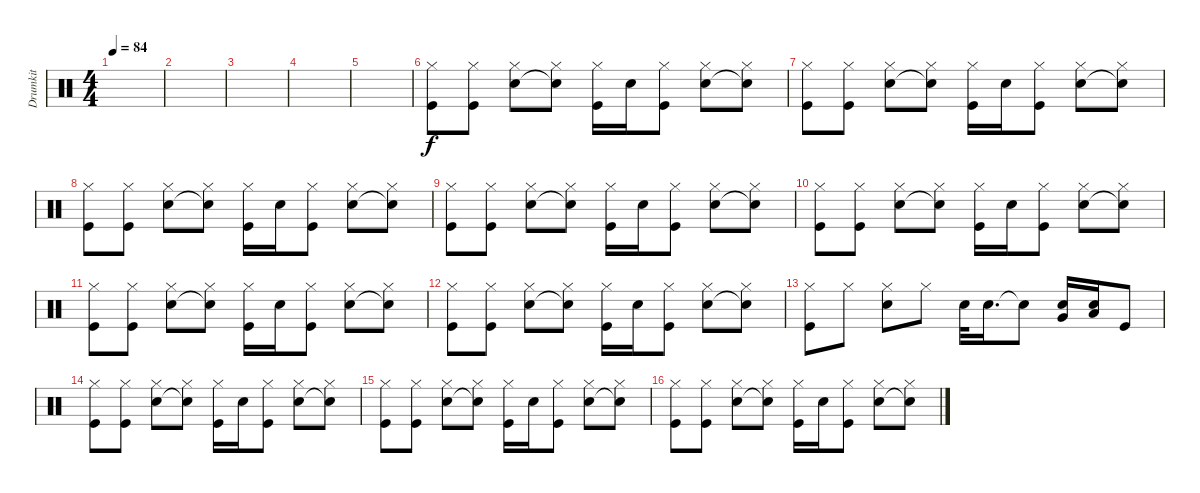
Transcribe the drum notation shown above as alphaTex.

\track ("Drumkit" "Drumkit") {instrument percussion}
\staff {score}
\articulation defaults
\ts (4 4)
\tempo 84
\clef neutral
\ks c
|
|
|
|
|
("Kick (hit)" "Hi-Hat (closed)").8 ("Kick (hit)" "Hi-Hat (closed)").8 ("Snare (hit) 2" "Hi-Hat (closed)").8 ("Snare (hit) 2"{t} "Hi-Hat (closed)").8 ("Kick (hit)" "Hi-Hat (closed)").16 "Snare (hit) 2".16 ("Kick (hit)" "Hi-Hat (closed)").8 ("Snare (hit) 2" "Hi-Hat (closed)").8 ("Snare (hit) 2"{t} "Hi-Hat (closed)").8 |
("Kick (hit)" "Hi-Hat (closed)").8 ("Kick (hit)" "Hi-Hat (closed)").8 ("Snare (hit) 2" "Hi-Hat (closed)").8 ("Snare (hit) 2"{t} "Hi-Hat (closed)").8 ("Kick (hit)" "Hi-Hat (closed)").16 "Snare (hit) 2".16 ("Kick (hit)" "Hi-Hat (closed)").8 ("Snare (hit) 2" "Hi-Hat (closed)").8 ("Snare (hit) 2"{t} "Hi-Hat (closed)").8 |
("Kick (hit)" "Hi-Hat (closed)").8 ("Kick (hit)" "Hi-Hat (closed)").8 ("Snare (hit) 2" "Hi-Hat (closed)").8 ("Snare (hit) 2"{t} "Hi-Hat (closed)").8 ("Kick (hit)" "Hi-Hat (closed)").16 "Snare (hit) 2".16 ("Kick (hit)" "Hi-Hat (closed)").8 ("Snare (hit) 2" "Hi-Hat (closed)").8 ("Snare (hit) 2"{t} "Hi-Hat (closed)").8 |
("Kick (hit)" "Hi-Hat (closed)").8 ("Kick (hit)" "Hi-Hat (closed)").8 ("Snare (hit) 2" "Hi-Hat (closed)").8 ("Snare (hit) 2"{t} "Hi-Hat (closed)").8 ("Kick (hit)" "Hi-Hat (closed)").16 "Snare (hit) 2".16 ("Kick (hit)" "Hi-Hat (closed)").8 ("Snare (hit) 2" "Hi-Hat (closed)").8 ("Snare (hit) 2"{t} "Hi-Hat (closed)").8 |
("Kick (hit)" "Hi-Hat (closed)").8 ("Kick (hit)" "Hi-Hat (closed)").8 ("Snare (hit) 2" "Hi-Hat (closed)").8 ("Snare (hit) 2"{t} "Hi-Hat (closed)").8 ("Kick (hit)" "Hi-Hat (closed)").16 "Snare (hit) 2".16 ("Kick (hit)" "Hi-Hat (closed)").8 ("Snare (hit) 2" "Hi-Hat (closed)").8 ("Snare (hit) 2"{t} "Hi-Hat (closed)").8 |
("Kick (hit)" "Hi-Hat (closed)").8 ("Kick (hit)" "Hi-Hat (closed)").8 ("Snare (hit) 2" "Hi-Hat (closed)").8 ("Snare (hit) 2"{t} "Hi-Hat (closed)").8 ("Kick (hit)" "Hi-Hat (closed)").16 "Snare (hit) 2".16 ("Kick (hit)" "Hi-Hat (closed)").8 ("Snare (hit) 2" "Hi-Hat (closed)").8 ("Snare (hit) 2"{t} "Hi-Hat (closed)").8 |
("Kick (hit)" "Hi-Hat (closed)").8 ("Kick (hit)" "Hi-Hat (closed)").8 ("Snare (hit) 2" "Hi-Hat (closed)").8 ("Snare (hit) 2"{t} "Hi-Hat (closed)").8 ("Kick (hit)" "Hi-Hat (closed)").16 "Snare (hit) 2".16 ("Kick (hit)" "Hi-Hat (closed)").8 ("Snare (hit) 2" "Hi-Hat (closed)").8 ("Snare (hit) 2"{t} "Hi-Hat (closed)").8 |
("Kick (hit)" "Hi-Hat (closed)").8 "Hi-Hat (closed)".8 ("Snare (hit) 2" "Hi-Hat (closed)").8 "Hi-Hat (closed)".8 "Snare (hit) 2".32 "Snare (hit) 2".16{d} "Snare (hit) 2"{t}.8 ("Snare (hit) 2" "Very Low Tom (hit)").16 ("Snare (hit) 2" "Low Tom (hit)").16 "Kick (hit)".8 |
("Kick (hit)" "Hi-Hat (closed)").8 ("Kick (hit)" "Hi-Hat (closed)").8 ("Snare (hit) 2" "Hi-Hat (closed)").8 ("Snare (hit) 2"{t} "Hi-Hat (closed)").8 ("Kick (hit)" "Hi-Hat (closed)").16 "Snare (hit) 2".16 ("Kick (hit)" "Hi-Hat (closed)").8 ("Snare (hit) 2" "Hi-Hat (closed)").8 ("Snare (hit) 2"{t} "Hi-Hat (closed)").8 |
("Kick (hit)" "Hi-Hat (closed)").8 ("Kick (hit)" "Hi-Hat (closed)").8 ("Snare (hit) 2" "Hi-Hat (closed)").8 ("Snare (hit) 2"{t} "Hi-Hat (closed)").8 ("Kick (hit)" "Hi-Hat (closed)").16 "Snare (hit) 2".16 ("Kick (hit)" "Hi-Hat (closed)").8 ("Snare (hit) 2" "Hi-Hat (closed)").8 ("Snare (hit) 2"{t} "Hi-Hat (closed)").8 |
("Kick (hit)" "Hi-Hat (closed)").8 ("Kick (hit)" "Hi-Hat (closed)").8 ("Snare (hit) 2" "Hi-Hat (closed)").8 ("Snare (hit) 2"{t} "Hi-Hat (closed)").8 ("Kick (hit)" "Hi-Hat (closed)").16 "Snare (hit) 2".16 ("Kick (hit)" "Hi-Hat (closed)").8 ("Snare (hit) 2" "Hi-Hat (closed)").8 ("Snare (hit) 2"{t} "Hi-Hat (closed)").8
